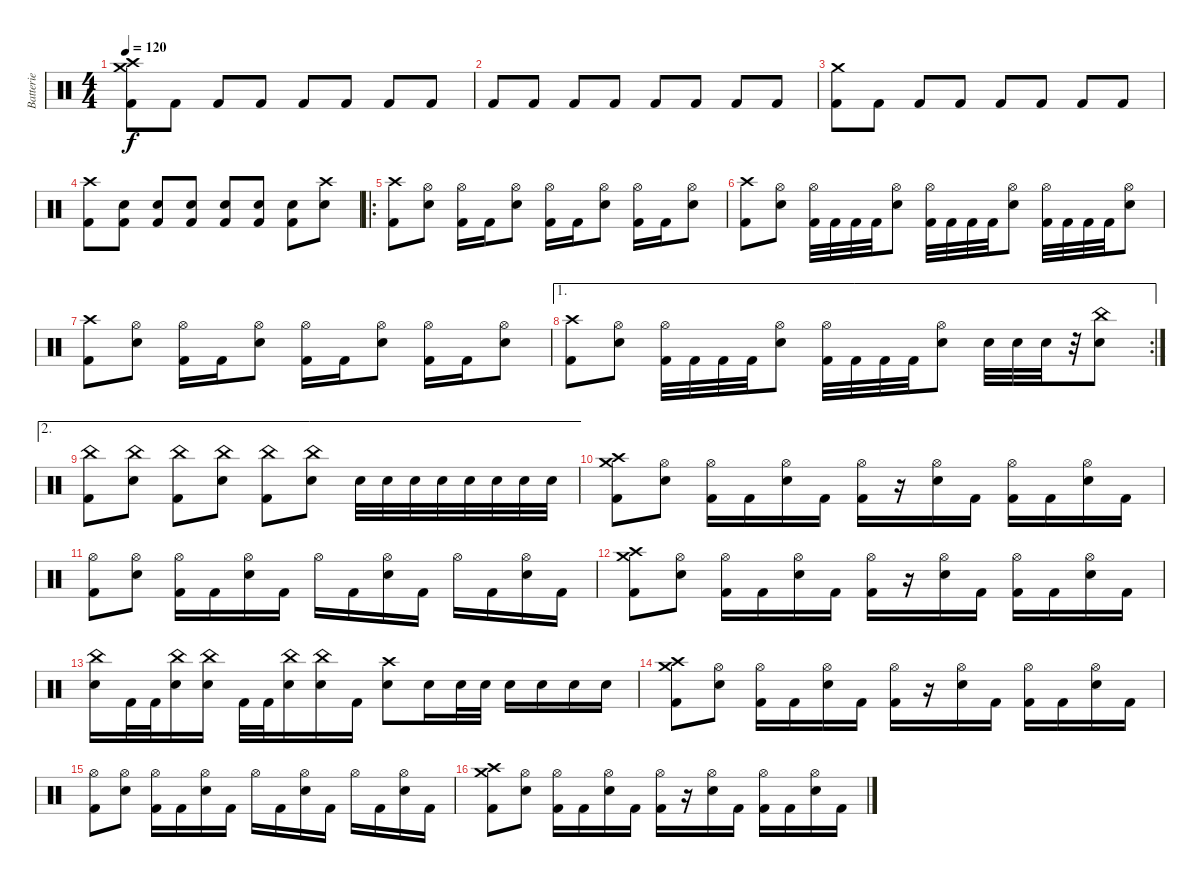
\track ("Batterie" "Batterie") {instrument percussion}
\staff {score}
\articulation defaults
\ts (4 4)
\tempo 120
\clef neutral
\ks c
("Crash high (hit)" "Crash medium (hit)" "Kick (hit) 2").8{dy f} "Kick (hit) 2".8 "Kick (hit) 2".8 "Kick (hit) 2".8 "Kick (hit) 2".8 "Kick (hit) 2".8 "Kick (hit) 2".8 "Kick (hit) 2".8 |
"Kick (hit) 2".8 "Kick (hit) 2".8 "Kick (hit) 2".8 "Kick (hit) 2".8 "Kick (hit) 2".8 "Kick (hit) 2".8 "Kick (hit) 2".8 "Kick (hit) 2".8 |
("Crash medium (hit)" "Kick (hit) 2").8 "Kick (hit) 2".8 "Kick (hit) 2".8 "Kick (hit) 2".8 "Kick (hit) 2".8 "Kick (hit) 2".8 "Kick (hit) 2".8 "Kick (hit) 2".8 |
("Crash high (hit)" "Kick (hit) 2").8 ("Snare (hit) 2" "Kick (hit) 2").8 ("Snare (hit) 2" "Kick (hit) 2").8 ("Snare (hit) 2" "Kick (hit) 2").8 ("Snare (hit) 2" "Kick (hit) 2").8 ("Snare (hit) 2" "Kick (hit) 2").8 ("Snare (hit) 2" "Kick (hit) 2").8 ("Crash high (hit)" "Snare (hit) 2").8 |
\ro
("Crash high (hit)" "Kick (hit) 2").8 ("Hi-Hat (open)" "Snare (hit) 2").8 ("Hi-Hat (open)" "Kick (hit) 2").16 "Kick (hit) 2".16 ("Hi-Hat (open)" "Snare (hit) 2").8 ("Hi-Hat (open)" "Kick (hit) 2").16 "Kick (hit) 2".16 ("Hi-Hat (open)" "Snare (hit) 2").8 ("Hi-Hat (open)" "Kick (hit) 2").16 "Kick (hit) 2".16 ("Hi-Hat (open)" "Snare (hit) 2").8 |
("Crash high (hit)" "Kick (hit) 2").8 ("Hi-Hat (open)" "Snare (hit) 2").8 ("Hi-Hat (open)" "Kick (hit) 2").32 "Kick (hit) 2".32 "Kick (hit) 2".32 "Kick (hit) 2".32 ("Hi-Hat (open)" "Snare (hit) 2").8 ("Hi-Hat (open)" "Kick (hit) 2").32 "Kick (hit) 2".32 "Kick (hit) 2".32 "Kick (hit) 2".32 ("Hi-Hat (open)" "Snare (hit) 2").8 ("Hi-Hat (open)" "Kick (hit) 2").32 "Kick (hit) 2".32 "Kick (hit) 2".32 "Kick (hit) 2".32 ("Hi-Hat (open)" "Snare (hit) 2").8 |
("Crash high (hit)" "Kick (hit) 2").8 ("Hi-Hat (open)" "Snare (hit) 2").8 ("Hi-Hat (open)" "Kick (hit) 2").16 "Kick (hit) 2".16 ("Hi-Hat (open)" "Snare (hit) 2").8 ("Hi-Hat (open)" "Kick (hit) 2").16 "Kick (hit) 2".16 ("Hi-Hat (open)" "Snare (hit) 2").8 ("Hi-Hat (open)" "Kick (hit) 2").16 "Kick (hit) 2".16 ("Hi-Hat (open)" "Snare (hit) 2").8 |
\ae 1
\rc 2
("Crash high (hit)" "Kick (hit) 2").8 ("Hi-Hat (open)" "Snare (hit) 2").8 ("Hi-Hat (open)" "Kick (hit) 2").32 "Kick (hit) 2".32 "Kick (hit) 2".32 "Kick (hit) 2".32 ("Hi-Hat (open)" "Snare (hit) 2").8 ("Hi-Hat (open)" "Kick (hit) 2").32 "Kick (hit) 2".32 "Kick (hit) 2".32 "Kick (hit) 2".32 ("Hi-Hat (open)" "Snare (hit) 2").8 "Snare (hit) 2".32 "Snare (hit) 2".32 "Snare (hit) 2".32 r.32 ("China (hit)" "Snare (hit) 2").8 |
\ae 2
("China (hit)" "Kick (hit) 2").8 ("China (hit)" "Snare (hit) 2").8 ("China (hit)" "Kick (hit) 2").8 ("China (hit)" "Snare (hit) 2").8 ("China (hit)" "Kick (hit) 2").8 ("China (hit)" "Snare (hit) 2").8 "Snare (hit) 2".32 "Snare (hit) 2".32 "Snare (hit) 2".32 "Snare (hit) 2".32 "Snare (hit) 2".32 "Snare (hit) 2".32 "Snare (hit) 2".32 "Snare (hit) 2".32 |
("Crash high (hit)" "Crash medium (hit)" "Kick (hit) 2").8 ("Hi-Hat (open)" "Snare (hit) 2").8 ("Hi-Hat (open)" "Kick (hit) 2").16 "Kick (hit) 2".16 ("Hi-Hat (open)" "Snare (hit) 2").16 "Kick (hit) 2".16 ("Hi-Hat (open)" "Kick (hit) 2").16 r.16 ("Hi-Hat (open)" "Snare (hit) 2").16 "Kick (hit) 2".16 ("Hi-Hat (open)" "Kick (hit) 2").16 "Kick (hit) 2".16 ("Hi-Hat (open)" "Snare (hit) 2").16 "Kick (hit) 2".16 |
("Hi-Hat (open)" "Kick (hit) 2").8 ("Hi-Hat (open)" "Snare (hit) 2").8 ("Hi-Hat (open)" "Kick (hit) 2").16 "Kick (hit) 2".16 ("Hi-Hat (open)" "Snare (hit) 2").16 "Kick (hit) 2".16 "Hi-Hat (open)".16 "Kick (hit) 2".16 ("Hi-Hat (open)" "Snare (hit) 2").16 "Kick (hit) 2".16 "Hi-Hat (open)".16 "Kick (hit) 2".16 ("Hi-Hat (open)" "Snare (hit) 2").16 "Kick (hit) 2".16 |
("Crash high (hit)" "Crash medium (hit)" "Kick (hit) 2").8 ("Hi-Hat (open)" "Snare (hit) 2").8 ("Hi-Hat (open)" "Kick (hit) 2").16 "Kick (hit) 2".16 ("Hi-Hat (open)" "Snare (hit) 2").16 "Kick (hit) 2".16 ("Hi-Hat (open)" "Kick (hit) 2").16 r.16 ("Hi-Hat (open)" "Snare (hit) 2").16 "Kick (hit) 2".16 ("Hi-Hat (open)" "Kick (hit) 2").16 "Kick (hit) 2".16 ("Hi-Hat (open)" "Snare (hit) 2").16 "Kick (hit) 2".16 |
("China (hit)" "Snare (hit) 2").16 "Kick (hit) 2".32 "Kick (hit) 2".32 ("China (hit)" "Snare (hit) 2").16 ("China (hit)" "Snare (hit) 2").16 "Kick (hit) 2".32 "Kick (hit) 2".32 ("China (hit)" "Snare (hit) 2").16 ("China (hit)" "Snare (hit) 2").16 "Kick (hit) 2".16 ("Crash high (hit)" "Snare (hit) 2").8 "Snare (hit) 2".16 "Snare (hit) 2".32 "Snare (hit) 2".32 "Snare (hit) 2".16 "Snare (hit) 2".16 "Snare (hit) 2".16 "Snare (hit) 2".16 |
("Crash high (hit)" "Crash medium (hit)" "Kick (hit) 2").8 ("Hi-Hat (open)" "Snare (hit) 2").8 ("Hi-Hat (open)" "Kick (hit) 2").16 "Kick (hit) 2".16 ("Hi-Hat (open)" "Snare (hit) 2").16 "Kick (hit) 2".16 ("Hi-Hat (open)" "Kick (hit) 2").16 r.16 ("Hi-Hat (open)" "Snare (hit) 2").16 "Kick (hit) 2".16 ("Hi-Hat (open)" "Kick (hit) 2").16 "Kick (hit) 2".16 ("Hi-Hat (open)" "Snare (hit) 2").16 "Kick (hit) 2".16 |
("Hi-Hat (open)" "Kick (hit) 2").8 ("Hi-Hat (open)" "Snare (hit) 2").8 ("Hi-Hat (open)" "Kick (hit) 2").16 "Kick (hit) 2".16 ("Hi-Hat (open)" "Snare (hit) 2").16 "Kick (hit) 2".16 "Hi-Hat (open)".16 "Kick (hit) 2".16 ("Hi-Hat (open)" "Snare (hit) 2").16 "Kick (hit) 2".16 "Hi-Hat (open)".16 "Kick (hit) 2".16 ("Hi-Hat (open)" "Snare (hit) 2").16 "Kick (hit) 2".16 |
("Crash high (hit)" "Crash medium (hit)" "Kick (hit) 2").8 ("Hi-Hat (open)" "Snare (hit) 2").8 ("Hi-Hat (open)" "Kick (hit) 2").16 "Kick (hit) 2".16 ("Hi-Hat (open)" "Snare (hit) 2").16 "Kick (hit) 2".16 ("Hi-Hat (open)" "Kick (hit) 2").16 r.16 ("Hi-Hat (open)" "Snare (hit) 2").16 "Kick (hit) 2".16 ("Hi-Hat (open)" "Kick (hit) 2").16 "Kick (hit) 2".16 ("Hi-Hat (open)" "Snare (hit) 2").16 "Kick (hit) 2".16
